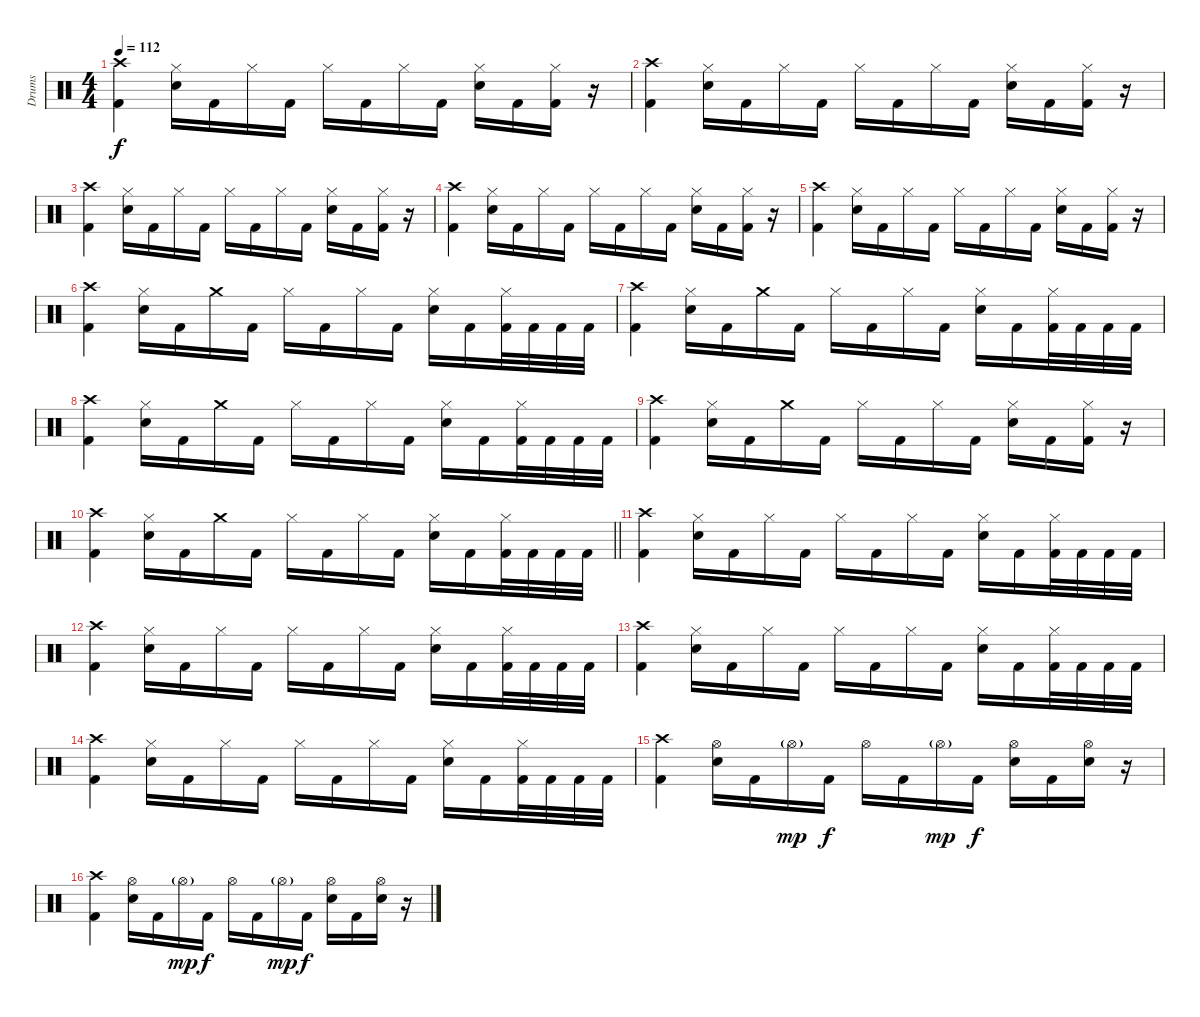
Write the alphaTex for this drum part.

\track ("Drums" "Drums") {instrument percussion}
\staff {score}
\articulation defaults
\ts (4 4)
\tempo 112
\clef neutral
\ks c
("Crash high (hit)" "Kick (hit) 2").4{dy f} ("Hi-Hat (closed)" "Electric Snare (hit)").16 "Kick (hit) 2".16 "Hi-Hat (closed)".16 "Kick (hit) 2".16 "Hi-Hat (closed)".16 "Kick (hit) 2".16 "Hi-Hat (closed)".16 "Kick (hit) 2".16 ("Hi-Hat (closed)" "Electric Snare (hit)").16 "Kick (hit) 2".16 ("Hi-Hat (closed)" "Kick (hit) 2").16 r.16 |
("Crash high (hit)" "Kick (hit) 2").4 ("Hi-Hat (closed)" "Electric Snare (hit)").16 "Kick (hit) 2".16 "Hi-Hat (closed)".16 "Kick (hit) 2".16 "Hi-Hat (closed)".16 "Kick (hit) 2".16 "Hi-Hat (closed)".16 "Kick (hit) 2".16 ("Hi-Hat (closed)" "Electric Snare (hit)").16 "Kick (hit) 2".16 ("Hi-Hat (closed)" "Kick (hit) 2").16 r.16 |
("Crash high (hit)" "Kick (hit) 2").4 ("Hi-Hat (closed)" "Electric Snare (hit)").16 "Kick (hit) 2".16 "Hi-Hat (closed)".16 "Kick (hit) 2".16 "Hi-Hat (closed)".16 "Kick (hit) 2".16 "Hi-Hat (closed)".16 "Kick (hit) 2".16 ("Hi-Hat (closed)" "Electric Snare (hit)").16 "Kick (hit) 2".16 ("Hi-Hat (closed)" "Kick (hit) 2").16 r.16 |
("Crash high (hit)" "Kick (hit) 2").4 ("Hi-Hat (closed)" "Electric Snare (hit)").16 "Kick (hit) 2".16 "Hi-Hat (closed)".16 "Kick (hit) 2".16 "Hi-Hat (closed)".16 "Kick (hit) 2".16 "Hi-Hat (closed)".16 "Kick (hit) 2".16 ("Hi-Hat (closed)" "Electric Snare (hit)").16 "Kick (hit) 2".16 ("Hi-Hat (closed)" "Kick (hit) 2").16 r.16 |
("Crash high (hit)" "Kick (hit) 2").4 ("Hi-Hat (closed)" "Electric Snare (hit)").16 "Kick (hit) 2".16 "Hi-Hat (closed)".16 "Kick (hit) 2".16 "Hi-Hat (closed)".16 "Kick (hit) 2".16 "Hi-Hat (closed)".16 "Kick (hit) 2".16 ("Hi-Hat (closed)" "Electric Snare (hit)").16 "Kick (hit) 2".16 ("Hi-Hat (closed)" "Kick (hit) 2").16 r.16 |
("Crash high (hit)" "Kick (hit) 2").4 ("Hi-Hat (closed)" "Electric Snare (hit)").16 "Kick (hit) 2".16 "Crash medium (hit)".16 "Kick (hit) 2".16 "Hi-Hat (closed)".16 "Kick (hit) 2".16 "Hi-Hat (closed)".16 "Kick (hit) 2".16 ("Hi-Hat (closed)" "Electric Snare (hit)").16 "Kick (hit) 2".16 ("Hi-Hat (closed)" "Kick (hit) 2").32 "Kick (hit) 2".32 "Kick (hit) 2".32 "Kick (hit) 2".32 |
("Crash high (hit)" "Kick (hit) 2").4 ("Hi-Hat (closed)" "Electric Snare (hit)").16 "Kick (hit) 2".16 "Crash medium (hit)".16 "Kick (hit) 2".16 "Hi-Hat (closed)".16 "Kick (hit) 2".16 "Hi-Hat (closed)".16 "Kick (hit) 2".16 ("Hi-Hat (closed)" "Electric Snare (hit)").16 "Kick (hit) 2".16 ("Hi-Hat (closed)" "Kick (hit) 2").32 "Kick (hit) 2".32 "Kick (hit) 2".32 "Kick (hit) 2".32 |
("Crash high (hit)" "Kick (hit) 2").4 ("Hi-Hat (closed)" "Electric Snare (hit)").16 "Kick (hit) 2".16 "Crash medium (hit)".16 "Kick (hit) 2".16 "Hi-Hat (closed)".16 "Kick (hit) 2".16 "Hi-Hat (closed)".16 "Kick (hit) 2".16 ("Hi-Hat (closed)" "Electric Snare (hit)").16 "Kick (hit) 2".16 ("Hi-Hat (closed)" "Kick (hit) 2").32 "Kick (hit) 2".32 "Kick (hit) 2".32 "Kick (hit) 2".32 |
("Crash high (hit)" "Kick (hit) 2").4 ("Hi-Hat (closed)" "Electric Snare (hit)").16 "Kick (hit) 2".16 "Crash medium (hit)".16 "Kick (hit) 2".16 "Hi-Hat (closed)".16 "Kick (hit) 2".16 "Hi-Hat (closed)".16 "Kick (hit) 2".16 ("Hi-Hat (closed)" "Electric Snare (hit)").16 "Kick (hit) 2".16 ("Hi-Hat (closed)" "Kick (hit) 2").16 r.16 |
\barLineRight lightlight
("Crash high (hit)" "Kick (hit) 2").4 ("Hi-Hat (closed)" "Electric Snare (hit)").16 "Kick (hit) 2".16 "Crash medium (hit)".16 "Kick (hit) 2".16 "Hi-Hat (closed)".16 "Kick (hit) 2".16 "Hi-Hat (closed)".16 "Kick (hit) 2".16 ("Hi-Hat (closed)" "Electric Snare (hit)").16 "Kick (hit) 2".16 ("Hi-Hat (closed)" "Kick (hit) 2").32 "Kick (hit) 2".32 "Kick (hit) 2".32 "Kick (hit) 2".32 |
("Crash high (hit)" "Kick (hit) 2").4 ("Hi-Hat (closed)" "Electric Snare (hit)").16 "Kick (hit) 2".16 "Hi-Hat (closed)".16 "Kick (hit) 2".16 "Hi-Hat (closed)".16 "Kick (hit) 2".16 "Hi-Hat (closed)".16 "Kick (hit) 2".16 ("Hi-Hat (closed)" "Electric Snare (hit)").16 "Kick (hit) 2".16 ("Hi-Hat (closed)" "Kick (hit) 2").32 "Kick (hit) 2".32 "Kick (hit) 2".32 "Kick (hit) 2".32 |
("Crash high (hit)" "Kick (hit) 2").4 ("Hi-Hat (closed)" "Electric Snare (hit)").16 "Kick (hit) 2".16 "Hi-Hat (closed)".16 "Kick (hit) 2".16 "Hi-Hat (closed)".16 "Kick (hit) 2".16 "Hi-Hat (closed)".16 "Kick (hit) 2".16 ("Hi-Hat (closed)" "Electric Snare (hit)").16 "Kick (hit) 2".16 ("Hi-Hat (closed)" "Kick (hit) 2").32 "Kick (hit) 2".32 "Kick (hit) 2".32 "Kick (hit) 2".32 |
("Crash high (hit)" "Kick (hit) 2").4 ("Hi-Hat (closed)" "Electric Snare (hit)").16 "Kick (hit) 2".16 "Hi-Hat (closed)".16 "Kick (hit) 2".16 "Hi-Hat (closed)".16 "Kick (hit) 2".16 "Hi-Hat (closed)".16 "Kick (hit) 2".16 ("Hi-Hat (closed)" "Electric Snare (hit)").16 "Kick (hit) 2".16 ("Hi-Hat (closed)" "Kick (hit) 2").32 "Kick (hit) 2".32 "Kick (hit) 2".32 "Kick (hit) 2".32 |
("Crash high (hit)" "Kick (hit) 2").4 ("Hi-Hat (closed)" "Electric Snare (hit)").16 "Kick (hit) 2".16 "Hi-Hat (closed)".16 "Kick (hit) 2".16 "Hi-Hat (closed)".16 "Kick (hit) 2".16 "Hi-Hat (closed)".16 "Kick (hit) 2".16 ("Hi-Hat (closed)" "Electric Snare (hit)").16 "Kick (hit) 2".16 ("Hi-Hat (closed)" "Kick (hit) 2").32 "Kick (hit) 2".32 "Kick (hit) 2".32 "Kick (hit) 2".32 |
("Crash high (hit)" "Kick (hit) 2").4 ("Hi-Hat (open)" "Electric Snare (hit)").16 "Kick (hit) 2".16 "Hi-Hat (open)"{g}.16{dy mp} "Kick (hit) 2".16{dy f} "Hi-Hat (open)".16 "Kick (hit) 2".16 "Hi-Hat (open)"{g}.16{dy mp} "Kick (hit) 2".16{dy f} ("Hi-Hat (open)" "Electric Snare (hit)").16 "Kick (hit) 2".16 ("Hi-Hat (open)" "Electric Snare (hit)").16 r.16 |
("Crash high (hit)" "Kick (hit) 2").4 ("Hi-Hat (open)" "Electric Snare (hit)").16 "Kick (hit) 2".16 "Hi-Hat (open)"{g}.16{dy mp} "Kick (hit) 2".16{dy f} "Hi-Hat (open)".16 "Kick (hit) 2".16 "Hi-Hat (open)"{g}.16{dy mp} "Kick (hit) 2".16{dy f} ("Hi-Hat (open)" "Electric Snare (hit)").16 "Kick (hit) 2".16 ("Hi-Hat (open)" "Electric Snare (hit)").16 r.16
